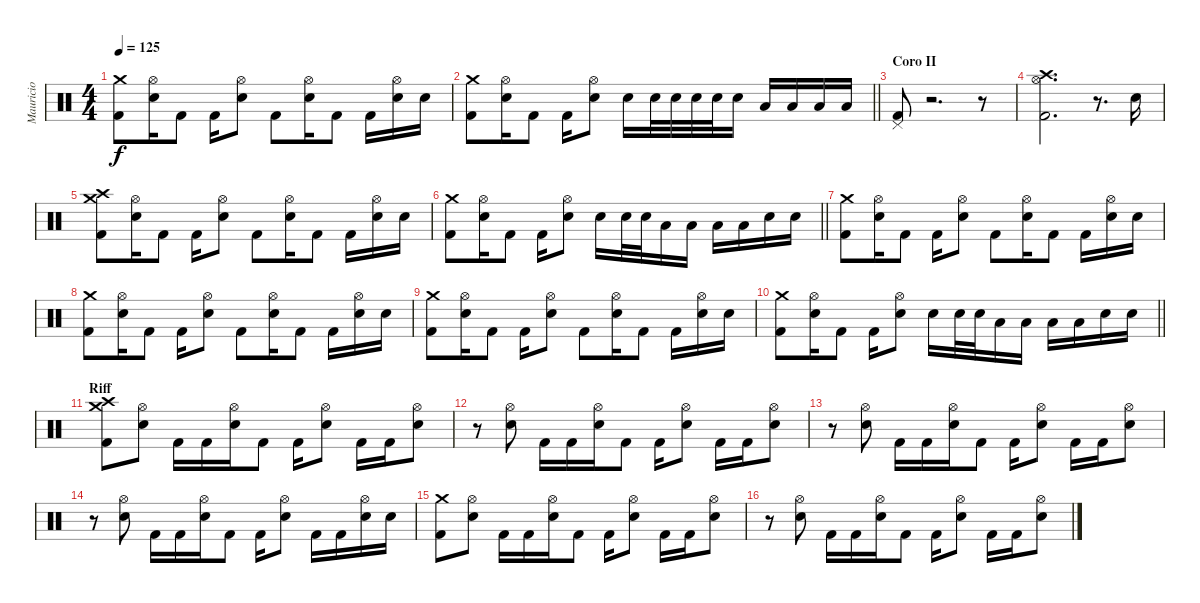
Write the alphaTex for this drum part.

\track ("Mauricio" "Mauricio") {instrument percussion}
\staff {score}
\articulation defaults
\ts (4 4)
\tempo 125
\clef neutral
\ks c
("Crash medium (hit)" "Kick (hit) 2").8{dy f} ("Hi-Hat (open)" "Electric Snare (hit)").16 "Kick (hit) 2".8 "Kick (hit) 2".16 ("Hi-Hat (open)" "Electric Snare (hit)").8 "Kick (hit) 2".8 ("Hi-Hat (open)" "Electric Snare (hit)").16 "Kick (hit) 2".8 "Kick (hit) 2".16 ("Hi-Hat (open)" "Electric Snare (hit)").16 "Electric Snare (hit)".16 |
\barLineRight lightlight
("Crash medium (hit)" "Kick (hit) 2").8 ("Hi-Hat (open)" "Electric Snare (hit)").16 "Kick (hit) 2".8 "Kick (hit) 2".16 ("Hi-Hat (open)" "Electric Snare (hit)").8 "Electric Snare (hit)".16 "Electric Snare (hit)".32 "Electric Snare (hit)".32 "Electric Snare (hit)".32 "Electric Snare (hit)".32 "Electric Snare (hit)".16 "Low Tom (hit)".16 "Low Tom (hit)".16 "Low Floor Tom (hit)".16 "Low Floor Tom (hit)".16 |
\section ("" "Coro II")
("Pedal Hi-Hat (hit)" "Kick (hit) 2").8 r.2{d} r.8 |
("Crash high (hit)" "Hi-Hat (open)" "Kick (hit) 2").2{d} r.8{d} "Electric Snare (hit)".16 |
("Crash medium (hit)" "Crash high (hit)" "Kick (hit) 2").8 ("Hi-Hat (open)" "Electric Snare (hit)").16 "Kick (hit) 2".8 "Kick (hit) 2".16 ("Hi-Hat (open)" "Electric Snare (hit)").8 "Kick (hit) 2".8 ("Hi-Hat (open)" "Electric Snare (hit)").16 "Kick (hit) 2".8 "Kick (hit) 2".16 ("Hi-Hat (open)" "Electric Snare (hit)").16 "Electric Snare (hit)".16 |
\barLineRight lightlight
("Crash medium (hit)" "Kick (hit) 2").8 ("Hi-Hat (open)" "Electric Snare (hit)").16 "Kick (hit) 2".8 "Kick (hit) 2".16 ("Hi-Hat (open)" "Electric Snare (hit)").8 "Electric Snare (hit)".16 "Electric Snare (hit)".32 "Electric Snare (hit)".32 "Low Tom (hit)".16 "Low Tom (hit)".16 "Low Floor Tom (hit)".16 "Low Floor Tom (hit)".16 "Electric Snare (hit)".16 "Electric Snare (hit)".16 |
("Crash medium (hit)" "Kick (hit) 2").8 ("Hi-Hat (open)" "Electric Snare (hit)").16 "Kick (hit) 2".8 "Kick (hit) 2".16 ("Hi-Hat (open)" "Electric Snare (hit)").8 "Kick (hit) 2".8 ("Hi-Hat (open)" "Electric Snare (hit)").16 "Kick (hit) 2".8 "Kick (hit) 2".16 ("Hi-Hat (open)" "Electric Snare (hit)").16 "Electric Snare (hit)".16 |
("Crash medium (hit)" "Kick (hit) 2").8 ("Hi-Hat (open)" "Electric Snare (hit)").16 "Kick (hit) 2".8 "Kick (hit) 2".16 ("Hi-Hat (open)" "Electric Snare (hit)").8 "Kick (hit) 2".8 ("Hi-Hat (open)" "Electric Snare (hit)").16 "Kick (hit) 2".8 "Kick (hit) 2".16 ("Hi-Hat (open)" "Electric Snare (hit)").16 "Electric Snare (hit)".16 |
("Crash medium (hit)" "Kick (hit) 2").8 ("Hi-Hat (open)" "Electric Snare (hit)").16 "Kick (hit) 2".8 "Kick (hit) 2".16 ("Hi-Hat (open)" "Electric Snare (hit)").8 "Kick (hit) 2".8 ("Hi-Hat (open)" "Electric Snare (hit)").16 "Kick (hit) 2".8 "Kick (hit) 2".16 ("Hi-Hat (open)" "Electric Snare (hit)").16 "Electric Snare (hit)".16 |
\barLineRight lightlight
("Crash medium (hit)" "Kick (hit) 2").8 ("Hi-Hat (open)" "Electric Snare (hit)").16 "Kick (hit) 2".8 "Kick (hit) 2".16 ("Hi-Hat (open)" "Electric Snare (hit)").8 "Electric Snare (hit)".16 "Electric Snare (hit)".32 "Electric Snare (hit)".32 "Low Tom (hit)".16 "Low Tom (hit)".16 "Low Floor Tom (hit)".16 "Low Floor Tom (hit)".16 "Electric Snare (hit)".16 "Electric Snare (hit)".16 |
\section ("" "Riff")
("Crash medium (hit)" "Crash high (hit)" "Kick (hit) 2").8 ("Hi-Hat (open)" "Electric Snare (hit)").8 "Kick (hit) 2".16 "Kick (hit) 2".16 ("Hi-Hat (open)" "Electric Snare (hit)").16 "Kick (hit) 2".8 "Kick (hit) 2".16 ("Hi-Hat (open)" "Electric Snare (hit)").8 "Kick (hit) 2".16 "Kick (hit) 2".16 ("Hi-Hat (open)" "Electric Snare (hit)").8 |
r.8 ("Hi-Hat (open)" "Electric Snare (hit)").8 "Kick (hit) 2".16 "Kick (hit) 2".16 ("Hi-Hat (open)" "Electric Snare (hit)").16 "Kick (hit) 2".8 "Kick (hit) 2".16 ("Hi-Hat (open)" "Electric Snare (hit)").8 "Kick (hit) 2".16 "Kick (hit) 2".16 ("Hi-Hat (open)" "Electric Snare (hit)").8 |
r.8 ("Hi-Hat (open)" "Electric Snare (hit)").8 "Kick (hit) 2".16 "Kick (hit) 2".16 ("Hi-Hat (open)" "Electric Snare (hit)").16 "Kick (hit) 2".8 "Kick (hit) 2".16 ("Hi-Hat (open)" "Electric Snare (hit)").8 "Kick (hit) 2".16 "Kick (hit) 2".16 ("Hi-Hat (open)" "Electric Snare (hit)").8 |
r.8 ("Hi-Hat (open)" "Electric Snare (hit)").8 "Kick (hit) 2".16 "Kick (hit) 2".16 ("Hi-Hat (open)" "Electric Snare (hit)").16 "Kick (hit) 2".8 "Kick (hit) 2".16 ("Hi-Hat (open)" "Electric Snare (hit)").8 "Kick (hit) 2".16 "Kick (hit) 2".16 ("Hi-Hat (open)" "Electric Snare (hit)").16 "Electric Snare (hit)".16 |
("Crash medium (hit)" "Kick (hit) 2").8 ("Hi-Hat (open)" "Electric Snare (hit)").8 "Kick (hit) 2".16 "Kick (hit) 2".16 ("Hi-Hat (open)" "Electric Snare (hit)").16 "Kick (hit) 2".8 "Kick (hit) 2".16 ("Hi-Hat (open)" "Electric Snare (hit)").8 "Kick (hit) 2".16 "Kick (hit) 2".16 ("Hi-Hat (open)" "Electric Snare (hit)").8 |
r.8 ("Hi-Hat (open)" "Electric Snare (hit)").8 "Kick (hit) 2".16 "Kick (hit) 2".16 ("Hi-Hat (open)" "Electric Snare (hit)").16 "Kick (hit) 2".8 "Kick (hit) 2".16 ("Hi-Hat (open)" "Electric Snare (hit)").8 "Kick (hit) 2".16 "Kick (hit) 2".16 ("Hi-Hat (open)" "Electric Snare (hit)").8
